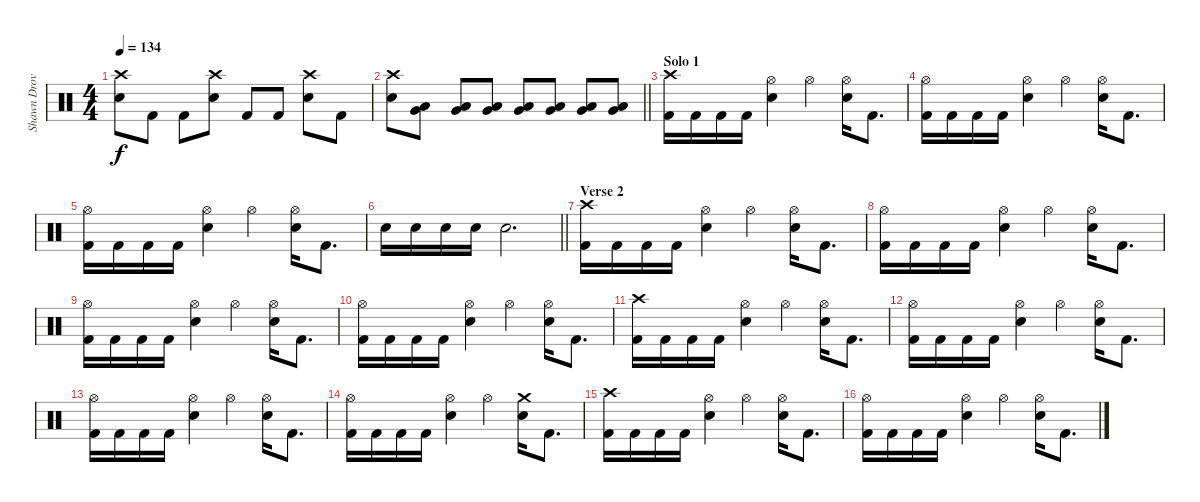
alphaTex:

\track ("Shawn Drover" "Shawn Drov") {instrument percussion}
\staff {score}
\articulation defaults
\ts (4 4)
\tempo 134
\clef neutral
\ks c
("Crash high (hit)" "Snare (hit) 2").8{dy f} "Kick (hit) 2".8 "Kick (hit) 2".8 ("Crash high (hit)" "Snare (hit) 2").8 "Kick (hit) 2".8 "Kick (hit) 2".8 ("Crash high (hit)" "Snare (hit) 2").8 "Kick (hit) 2".8 |
\barLineRight lightlight
("Crash high (hit)" "Snare (hit) 2").8 ("Low Tom (hit)" "Very Low Tom (hit)").8 ("Low Tom (hit)" "Very Low Tom (hit)").8 ("Low Tom (hit)" "Very Low Tom (hit)").8 ("Very Low Tom (hit)" "Low Floor Tom (hit)").8 ("Very Low Tom (hit)" "Low Floor Tom (hit)").8 ("Very Low Tom (hit)" "Low Floor Tom (hit)").8 ("Very Low Tom (hit)" "Low Floor Tom (hit)").8 |
\section ("" "Solo 1")
("Crash high (hit)" "Kick (hit) 2").16 "Kick (hit) 2".16 "Kick (hit) 2".16 "Kick (hit) 2".16 ("Hi-Hat (open)" "Snare (hit) 2").4 "Hi-Hat (open)".4 ("Hi-Hat (open)" "Snare (hit) 2").16 "Kick (hit) 2".8{d} |
("Hi-Hat (open)" "Kick (hit) 2").16 "Kick (hit) 2".16 "Kick (hit) 2".16 "Kick (hit) 2".16 ("Hi-Hat (open)" "Snare (hit) 2").4 "Hi-Hat (open)".4 ("Hi-Hat (open)" "Snare (hit) 2").16 "Kick (hit) 2".8{d} |
("Hi-Hat (open)" "Kick (hit) 2").16 "Kick (hit) 2".16 "Kick (hit) 2".16 "Kick (hit) 2".16 ("Hi-Hat (open)" "Snare (hit) 2").4 "Hi-Hat (open)".4 ("Hi-Hat (open)" "Snare (hit) 2").16 "Kick (hit) 2".8{d} |
\barLineRight lightlight "Snare (hit) 2".16 "Snare (hit) 2".16 "Snare (hit) 2".16 "Snare (hit) 2".16 "Snare (hit) 2".2{d}
|
\section ("" "Verse 2")
("Crash high (hit)" "Kick (hit) 2").16 "Kick (hit) 2".16 "Kick (hit) 2".16 "Kick (hit) 2".16 ("Hi-Hat (open)" "Snare (hit) 2").4 "Hi-Hat (open)".4 ("Hi-Hat (open)" "Snare (hit) 2").16 "Kick (hit) 2".8{d} |
("Hi-Hat (open)" "Kick (hit) 2").16 "Kick (hit) 2".16 "Kick (hit) 2".16 "Kick (hit) 2".16 ("Hi-Hat (open)" "Snare (hit) 2").4 "Hi-Hat (open)".4 ("Hi-Hat (open)" "Snare (hit) 2").16 "Kick (hit) 2".8{d} |
("Hi-Hat (open)" "Kick (hit) 2").16 "Kick (hit) 2".16 "Kick (hit) 2".16 "Kick (hit) 2".16 ("Hi-Hat (open)" "Snare (hit) 2").4 "Hi-Hat (open)".4 ("Hi-Hat (open)" "Snare (hit) 2").16 "Kick (hit) 2".8{d} |
("Hi-Hat (open)" "Kick (hit) 2").16 "Kick (hit) 2".16 "Kick (hit) 2".16 "Kick (hit) 2".16 ("Hi-Hat (open)" "Snare (hit) 2").4 "Hi-Hat (open)".4 ("Hi-Hat (open)" "Snare (hit) 2").16 "Kick (hit) 2".8{d} |
("Crash high (hit)" "Kick (hit) 2").16 "Kick (hit) 2".16 "Kick (hit) 2".16 "Kick (hit) 2".16 ("Hi-Hat (open)" "Snare (hit) 2").4 "Hi-Hat (open)".4 ("Hi-Hat (open)" "Snare (hit) 2").16 "Kick (hit) 2".8{d} |
("Hi-Hat (open)" "Kick (hit) 2").16 "Kick (hit) 2".16 "Kick (hit) 2".16 "Kick (hit) 2".16 ("Hi-Hat (open)" "Snare (hit) 2").4 "Hi-Hat (open)".4 ("Hi-Hat (open)" "Snare (hit) 2").16 "Kick (hit) 2".8{d} |
("Hi-Hat (open)" "Kick (hit) 2").16 "Kick (hit) 2".16 "Kick (hit) 2".16 "Kick (hit) 2".16 ("Hi-Hat (open)" "Snare (hit) 2").4 "Hi-Hat (open)".4 ("Hi-Hat (open)" "Snare (hit) 2").16 "Kick (hit) 2".8{d} |
("Hi-Hat (open)" "Kick (hit) 2").16 "Kick (hit) 2".16 "Kick (hit) 2".16 "Kick (hit) 2".16 ("Hi-Hat (open)" "Snare (hit) 2").4 "Hi-Hat (open)".4 ("Crash medium (hit)" "Snare (hit) 2").16 "Kick (hit) 2".8{d} |
("Crash high (hit)" "Kick (hit) 2").16 "Kick (hit) 2".16 "Kick (hit) 2".16 "Kick (hit) 2".16 ("Hi-Hat (open)" "Snare (hit) 2").4 "Hi-Hat (open)".4 ("Hi-Hat (open)" "Snare (hit) 2").16 "Kick (hit) 2".8{d} |
("Hi-Hat (open)" "Kick (hit) 2").16 "Kick (hit) 2".16 "Kick (hit) 2".16 "Kick (hit) 2".16 ("Hi-Hat (open)" "Snare (hit) 2").4 "Hi-Hat (open)".4 ("Hi-Hat (open)" "Snare (hit) 2").16 "Kick (hit) 2".8{d}
